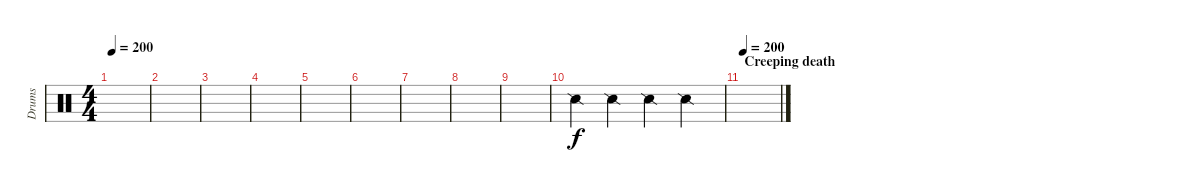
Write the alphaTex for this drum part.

\track ("Drums" "Drums") {instrument percussion}
\staff {score}
\articulation defaults
\ts (4 4)
\tempo 200
\clef neutral
\ks c
|
|
|
|
|
|
|
|
|
"Snare (side stick) 2".4 "Snare (side stick) 2".4 "Snare (side stick) 2".4 "Snare (side stick) 2".4 |
\section ("" "Creeping death")
\tempo 200
